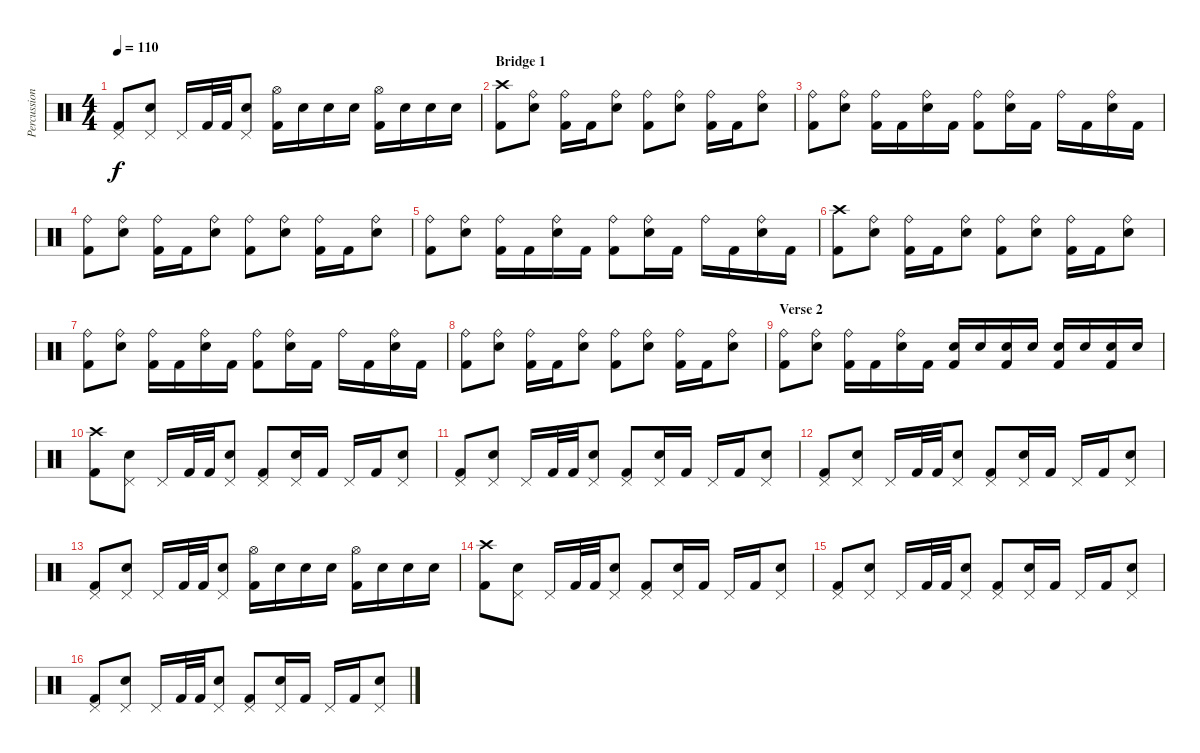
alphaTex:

\track ("Percussion" "Percussion") {instrument percussion}
\staff {score}
\articulation defaults
\ts (4 4)
\tempo 110
\clef neutral
\ks c
("Kick (hit) 2" "Pedal Hi-Hat (hit)").8{dy f} ("Electric Snare (hit)" "Pedal Hi-Hat (hit)").8 "Pedal Hi-Hat (hit)".16 "Kick (hit) 2".32 "Kick (hit) 2".32 ("Electric Snare (hit)" "Pedal Hi-Hat (hit)").8 ("Kick (hit) 2" "Hi-Hat (open)").16 "Electric Snare (hit)".16 "Electric Snare (hit)".16 "Electric Snare (hit)".16 ("Kick (hit) 2" "Hi-Hat (open)").16 "Electric Snare (hit)".16 "Electric Snare (hit)".16 "Electric Snare (hit)".16 |
\section ("" "Bridge 1")
("Kick (hit) 2" "Crash high (hit)").8 ("Electric Snare (hit)" "Ride (bell)").8 ("Kick (hit) 2" "Ride (bell)").16 "Kick (hit) 2".16 ("Electric Snare (hit)" "Ride (bell)").8 ("Kick (hit) 2" "Ride (bell)").8 ("Electric Snare (hit)" "Ride (bell)").8 ("Kick (hit) 2" "Ride (bell)").16 "Kick (hit) 2".16 ("Electric Snare (hit)" "Ride (bell)").8 |
("Kick (hit) 2" "Ride (bell)").8 ("Electric Snare (hit)" "Ride (bell)").8 ("Kick (hit) 2" "Ride (bell)").16 "Kick (hit) 2".16 ("Electric Snare (hit)" "Ride (bell)").16 "Kick (hit) 2".16 ("Kick (hit) 2" "Ride (bell)").8 ("Electric Snare (hit)" "Ride (bell)").16 "Kick (hit) 2".16 "Ride (bell)".16 "Kick (hit) 2".16 ("Electric Snare (hit)" "Ride (bell)").16 "Kick (hit) 2".16 |
("Kick (hit) 2" "Ride (bell)").8 ("Electric Snare (hit)" "Ride (bell)").8 ("Kick (hit) 2" "Ride (bell)").16 "Kick (hit) 2".16 ("Electric Snare (hit)" "Ride (bell)").8 ("Kick (hit) 2" "Ride (bell)").8 ("Electric Snare (hit)" "Ride (bell)").8 ("Kick (hit) 2" "Ride (bell)").16 "Kick (hit) 2".16 ("Electric Snare (hit)" "Ride (bell)").8 |
("Kick (hit) 2" "Ride (bell)").8 ("Electric Snare (hit)" "Ride (bell)").8 ("Kick (hit) 2" "Ride (bell)").16 "Kick (hit) 2".16 ("Electric Snare (hit)" "Ride (bell)").16 "Kick (hit) 2".16 ("Kick (hit) 2" "Ride (bell)").8 ("Electric Snare (hit)" "Ride (bell)").16 "Kick (hit) 2".16 "Ride (bell)".16 "Kick (hit) 2".16 ("Electric Snare (hit)" "Ride (bell)").16 "Kick (hit) 2".16 |
("Kick (hit) 2" "Crash high (hit)").8 ("Electric Snare (hit)" "Ride (bell)").8 ("Kick (hit) 2" "Ride (bell)").16 "Kick (hit) 2".16 ("Electric Snare (hit)" "Ride (bell)").8 ("Kick (hit) 2" "Ride (bell)").8 ("Electric Snare (hit)" "Ride (bell)").8 ("Kick (hit) 2" "Ride (bell)").16 "Kick (hit) 2".16 ("Electric Snare (hit)" "Ride (bell)").8 |
("Kick (hit) 2" "Ride (bell)").8 ("Electric Snare (hit)" "Ride (bell)").8 ("Kick (hit) 2" "Ride (bell)").16 "Kick (hit) 2".16 ("Electric Snare (hit)" "Ride (bell)").16 "Kick (hit) 2".16 ("Kick (hit) 2" "Ride (bell)").8 ("Electric Snare (hit)" "Ride (bell)").16 "Kick (hit) 2".16 "Ride (bell)".16 "Kick (hit) 2".16 ("Electric Snare (hit)" "Ride (bell)").16 "Kick (hit) 2".16 |
("Kick (hit) 2" "Ride (bell)").8 ("Electric Snare (hit)" "Ride (bell)").8 ("Kick (hit) 2" "Ride (bell)").16 "Kick (hit) 2".16 ("Electric Snare (hit)" "Ride (bell)").8 ("Kick (hit) 2" "Ride (bell)").8 ("Electric Snare (hit)" "Ride (bell)").8 ("Kick (hit) 2" "Ride (bell)").16 "Kick (hit) 2".16 ("Electric Snare (hit)" "Ride (bell)").8 |
\section ("" "Verse 2")
("Kick (hit) 2" "Ride (bell)").8 ("Electric Snare (hit)" "Ride (bell)").8 ("Kick (hit) 2" "Ride (bell)").16 "Kick (hit) 2".16 ("Electric Snare (hit)" "Ride (bell)").16 "Kick (hit) 2".16 ("Electric Snare (hit)" "Kick (hit) 2").16 "Electric Snare (hit)".16 ("Electric Snare (hit)" "Kick (hit) 2").16 "Electric Snare (hit)".16 ("Electric Snare (hit)" "Kick (hit) 2").16 "Electric Snare (hit)".16 ("Electric Snare (hit)" "Kick (hit) 2").16 "Electric Snare (hit)".16 |
("Kick (hit) 2" "Crash high (hit)").8 ("Electric Snare (hit)" "Pedal Hi-Hat (hit)").8 "Pedal Hi-Hat (hit)".16 "Kick (hit) 2".32 "Kick (hit) 2".32 ("Electric Snare (hit)" "Pedal Hi-Hat (hit)").8 ("Kick (hit) 2" "Pedal Hi-Hat (hit)").8 ("Electric Snare (hit)" "Pedal Hi-Hat (hit)").16 "Kick (hit) 2".16 "Pedal Hi-Hat (hit)".16 "Kick (hit) 2".16 ("Electric Snare (hit)" "Pedal Hi-Hat (hit)").8 |
("Kick (hit) 2" "Pedal Hi-Hat (hit)").8 ("Electric Snare (hit)" "Pedal Hi-Hat (hit)").8 "Pedal Hi-Hat (hit)".16 "Kick (hit) 2".32 "Kick (hit) 2".32 ("Electric Snare (hit)" "Pedal Hi-Hat (hit)").8 ("Kick (hit) 2" "Pedal Hi-Hat (hit)").8 ("Electric Snare (hit)" "Pedal Hi-Hat (hit)").16 "Kick (hit) 2".16 "Pedal Hi-Hat (hit)".16 "Kick (hit) 2".16 ("Electric Snare (hit)" "Pedal Hi-Hat (hit)").8 |
("Kick (hit) 2" "Pedal Hi-Hat (hit)").8 ("Electric Snare (hit)" "Pedal Hi-Hat (hit)").8 "Pedal Hi-Hat (hit)".16 "Kick (hit) 2".32 "Kick (hit) 2".32 ("Electric Snare (hit)" "Pedal Hi-Hat (hit)").8 ("Kick (hit) 2" "Pedal Hi-Hat (hit)").8 ("Electric Snare (hit)" "Pedal Hi-Hat (hit)").16 "Kick (hit) 2".16 "Pedal Hi-Hat (hit)".16 "Kick (hit) 2".16 ("Electric Snare (hit)" "Pedal Hi-Hat (hit)").8 |
("Kick (hit) 2" "Pedal Hi-Hat (hit)").8 ("Electric Snare (hit)" "Pedal Hi-Hat (hit)").8 "Pedal Hi-Hat (hit)".16 "Kick (hit) 2".32 "Kick (hit) 2".32 ("Electric Snare (hit)" "Pedal Hi-Hat (hit)").8 ("Kick (hit) 2" "Hi-Hat (open)").16 "Electric Snare (hit)".16 "Electric Snare (hit)".16 "Electric Snare (hit)".16 ("Kick (hit) 2" "Hi-Hat (open)").16 "Electric Snare (hit)".16 "Electric Snare (hit)".16 "Electric Snare (hit)".16 |
("Kick (hit) 2" "Crash high (hit)").8 ("Electric Snare (hit)" "Pedal Hi-Hat (hit)").8 "Pedal Hi-Hat (hit)".16 "Kick (hit) 2".32 "Kick (hit) 2".32 ("Electric Snare (hit)" "Pedal Hi-Hat (hit)").8 ("Kick (hit) 2" "Pedal Hi-Hat (hit)").8 ("Electric Snare (hit)" "Pedal Hi-Hat (hit)").16 "Kick (hit) 2".16 "Pedal Hi-Hat (hit)".16 "Kick (hit) 2".16 ("Electric Snare (hit)" "Pedal Hi-Hat (hit)").8 |
("Kick (hit) 2" "Pedal Hi-Hat (hit)").8 ("Electric Snare (hit)" "Pedal Hi-Hat (hit)").8 "Pedal Hi-Hat (hit)".16 "Kick (hit) 2".32 "Kick (hit) 2".32 ("Electric Snare (hit)" "Pedal Hi-Hat (hit)").8 ("Kick (hit) 2" "Pedal Hi-Hat (hit)").8 ("Electric Snare (hit)" "Pedal Hi-Hat (hit)").16 "Kick (hit) 2".16 "Pedal Hi-Hat (hit)".16 "Kick (hit) 2".16 ("Electric Snare (hit)" "Pedal Hi-Hat (hit)").8 |
("Kick (hit) 2" "Pedal Hi-Hat (hit)").8 ("Electric Snare (hit)" "Pedal Hi-Hat (hit)").8 "Pedal Hi-Hat (hit)".16 "Kick (hit) 2".32 "Kick (hit) 2".32 ("Electric Snare (hit)" "Pedal Hi-Hat (hit)").8 ("Kick (hit) 2" "Pedal Hi-Hat (hit)").8 ("Electric Snare (hit)" "Pedal Hi-Hat (hit)").16 "Kick (hit) 2".16 "Pedal Hi-Hat (hit)".16 "Kick (hit) 2".16 ("Electric Snare (hit)" "Pedal Hi-Hat (hit)").8
